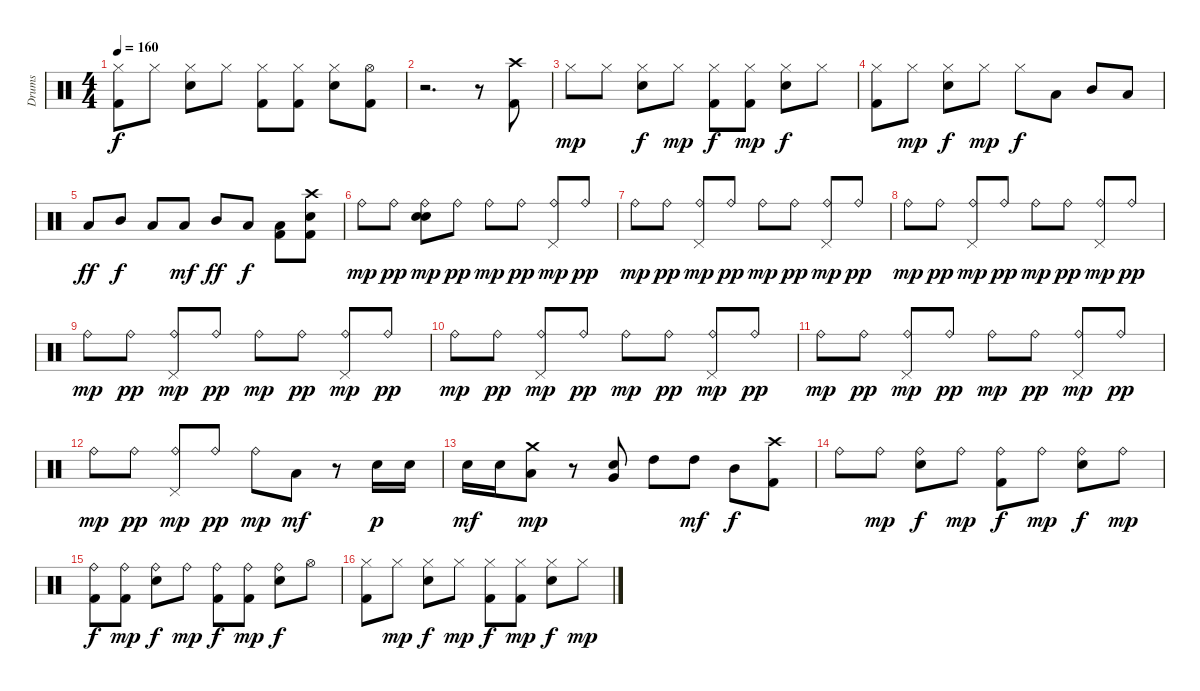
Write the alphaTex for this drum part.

\track ("Drums" "Drums") {instrument percussion}
\staff {score}
\articulation defaults
\ts (4 4)
\tempo 160
\clef neutral
\ks c
("Kick (hit) 2" "Hi-Hat (closed)").8{dy f} "Hi-Hat (closed)".8 ("Snare (hit) 2" "Hi-Hat (closed)").8 "Hi-Hat (closed)".8 ("Kick (hit) 2" "Hi-Hat (closed)").8 ("Kick (hit) 2" "Hi-Hat (closed)").8 ("Snare (hit) 2" "Hi-Hat (closed)").8 ("Kick (hit) 2" "Hi-Hat (open)").8 |
r.2{d} r.8 ("Kick (hit) 2" "Crash high (hit)").8 |
"Hi-Hat (closed)".8{dy mp} "Hi-Hat (closed)".8 ("Snare (hit) 2" "Hi-Hat (closed)").8{dy f} "Hi-Hat (closed)".8{dy mp} ("Kick (hit) 2" "Hi-Hat (closed)").8{dy f} ("Kick (hit) 2" "Hi-Hat (closed)").8{dy mp} ("Snare (hit) 2" "Hi-Hat (closed)").8{dy f} "Hi-Hat (closed)".8 |
("Kick (hit) 2" "Hi-Hat (closed)").8 "Hi-Hat (closed)".8{dy mp} ("Snare (hit) 2" "Hi-Hat (closed)").8{dy f} "Hi-Hat (closed)".8{dy mp} "Hi-Hat (closed)".8{dy f} "Low Tom (hit)".8 "Mid Tom (hit)".8 "Low Tom (hit)".8 |
"Low Tom (hit)".8{dy ff} "Mid Tom (hit)".8{dy f} "Low Tom (hit)".8 "Low Tom (hit)".8{dy mf} "Mid Tom (hit)".8{dy ff} "Low Tom (hit)".8{dy f} ("Kick (hit) 2" "Low Tom (hit)").8 ("Kick (hit) 2" "Snare (hit) 2" "Crash high (hit)").8 |
"Ride (bell)".8{dy mp} "Ride (bell)".8{dy pp} ("Snare (hit) 2" "Electric Snare (hit)" "Ride (bell)").8{dy mp} "Ride (bell)".8{dy pp} "Ride (bell)".8{dy mp} "Ride (bell)".8{dy pp} ("Pedal Hi-Hat (hit)" "Ride (bell)").8{dy mp} "Ride (bell)".8{dy pp} |
"Ride (bell)".8{dy mp} "Ride (bell)".8{dy pp} ("Pedal Hi-Hat (hit)" "Ride (bell)").8{dy mp} "Ride (bell)".8{dy pp} "Ride (bell)".8{dy mp} "Ride (bell)".8{dy pp} ("Pedal Hi-Hat (hit)" "Ride (bell)").8{dy mp} "Ride (bell)".8{dy pp} |
"Ride (bell)".8{dy mp} "Ride (bell)".8{dy pp} ("Pedal Hi-Hat (hit)" "Ride (bell)").8{dy mp} "Ride (bell)".8{dy pp} "Ride (bell)".8{dy mp} "Ride (bell)".8{dy pp} ("Pedal Hi-Hat (hit)" "Ride (bell)").8{dy mp} "Ride (bell)".8{dy pp} |
"Ride (bell)".8{dy mp} "Ride (bell)".8{dy pp} ("Pedal Hi-Hat (hit)" "Ride (bell)").8{dy mp} "Ride (bell)".8{dy pp} "Ride (bell)".8{dy mp} "Ride (bell)".8{dy pp} ("Pedal Hi-Hat (hit)" "Ride (bell)").8{dy mp} "Ride (bell)".8{dy pp} |
"Ride (bell)".8{dy mp} "Ride (bell)".8{dy pp} ("Pedal Hi-Hat (hit)" "Ride (bell)").8{dy mp} "Ride (bell)".8{dy pp} "Ride (bell)".8{dy mp} "Ride (bell)".8{dy pp} ("Pedal Hi-Hat (hit)" "Ride (bell)").8{dy mp} "Ride (bell)".8{dy pp} |
"Ride (bell)".8{dy mp} "Ride (bell)".8{dy pp} ("Pedal Hi-Hat (hit)" "Ride (bell)").8{dy mp} "Ride (bell)".8{dy pp} "Ride (bell)".8{dy mp} "Ride (bell)".8{dy pp} ("Pedal Hi-Hat (hit)" "Ride (bell)").8{dy mp} "Ride (bell)".8{dy pp} |
"Ride (bell)".8{dy mp} "Ride (bell)".8{dy pp} ("Pedal Hi-Hat (hit)" "Ride (bell)").8{dy mp} "Ride (bell)".8{dy pp} "Ride (bell)".8{dy mp} "Low Tom (hit)".8{dy mf} r.8 "Snare (hit) 2".16{dy p} "Snare (hit) 2".16 |
"Snare (hit) 2".16{dy mf} "Snare (hit) 2".16 ("Low Tom (hit)" "Crash medium (hit)").8{dy mp} r.8 ("Snare (hit) 2" "Very Low Tom (hit)").8 "High Tom (hit)".8 "High Tom (hit)".8{dy mf} "Mid Tom (hit)".8{dy f} ("Kick (hit) 2" "Crash high (hit)").8 |
"Ride (bell)".8 "Ride (bell)".8{dy mp} ("Snare (hit) 2" "Ride (bell)").8{dy f} "Ride (bell)".8{dy mp} ("Kick (hit) 2" "Ride (bell)").8{dy f} "Ride (bell)".8{dy mp} ("Snare (hit) 2" "Ride (bell)").8{dy f} "Ride (bell)".8{dy mp} |
("Kick (hit) 2" "Ride (bell)").8{dy f} ("Kick (hit) 2" "Ride (bell)").8{dy mp} ("Snare (hit) 2" "Ride (bell)").8{dy f} "Ride (bell)".8{dy mp} ("Kick (hit) 2" "Ride (bell)").8{dy f} ("Kick (hit) 2" "Ride (bell)").8{dy mp} ("Snare (hit) 2" "Ride (bell)").8{dy f} "Hi-Hat (open)".8 |
("Kick (hit) 2" "Hi-Hat (closed)").8 "Hi-Hat (closed)".8{dy mp} ("Snare (hit) 2" "Hi-Hat (closed)").8{dy f} "Hi-Hat (closed)".8{dy mp} ("Kick (hit) 2" "Hi-Hat (closed)").8{dy f} ("Kick (hit) 2" "Hi-Hat (closed)").8{dy mp} ("Snare (hit) 2" "Hi-Hat (closed)").8{dy f} "Hi-Hat (closed)".8{dy mp}
